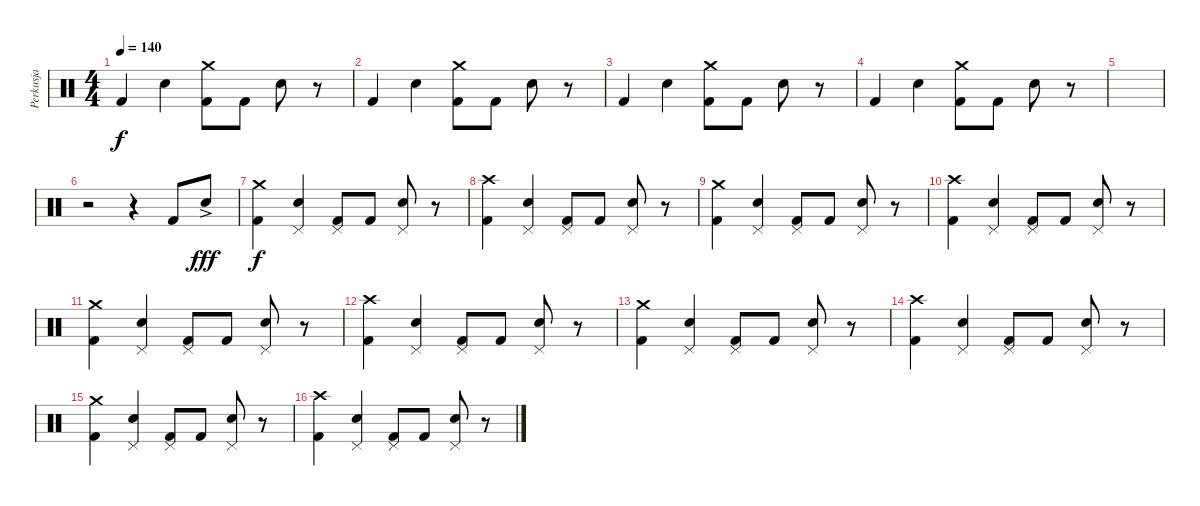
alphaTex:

\track ("Perkusja" "Perkusja") {instrument percussion}
\staff {score}
\articulation defaults
\ts (4 4)
\tempo 140
\clef neutral
\ks c "Kick (hit) 2".4{dy f} "Snare (hit) 2".4
("Crash medium (hit)" "Kick (hit) 2").8 "Kick (hit) 2".8 "Snare (hit) 2".8 r.8 |
"Kick (hit) 2".4 "Snare (hit) 2".4 ("Crash medium (hit)" "Kick (hit) 2").8 "Kick (hit) 2".8 "Snare (hit) 2".8 r.8 |
"Kick (hit) 2".4 "Snare (hit) 2".4 ("Crash medium (hit)" "Kick (hit) 2").8 "Kick (hit) 2".8 "Snare (hit) 2".8 r.8 |
"Kick (hit) 2".4 "Snare (hit) 2".4 ("Crash medium (hit)" "Kick (hit) 2").8 "Kick (hit) 2".8 "Snare (hit) 2".8 r.8 |
|
r.2 r.4 "Kick (hit) 2".8 "Snare (hit) 2"{ac}.8{dy fff} |
("Crash medium (hit)" "Kick (hit) 2").4{dy f} ("Pedal Hi-Hat (hit)" "Snare (hit) 2").4 ("Pedal Hi-Hat (hit)" "Kick (hit) 2").8 "Kick (hit) 2".8 ("Pedal Hi-Hat (hit)" "Snare (hit) 2").8 r.8 |
("Crash high (hit)" "Kick (hit) 2").4 ("Pedal Hi-Hat (hit)" "Snare (hit) 2").4 ("Pedal Hi-Hat (hit)" "Kick (hit) 2").8 "Kick (hit) 2".8 ("Pedal Hi-Hat (hit)" "Snare (hit) 2").8 r.8 |
("Crash medium (hit)" "Kick (hit) 2").4 ("Pedal Hi-Hat (hit)" "Snare (hit) 2").4 ("Pedal Hi-Hat (hit)" "Kick (hit) 2").8 "Kick (hit) 2".8 ("Pedal Hi-Hat (hit)" "Snare (hit) 2").8 r.8 |
("Crash high (hit)" "Kick (hit) 2").4 ("Pedal Hi-Hat (hit)" "Snare (hit) 2").4 ("Pedal Hi-Hat (hit)" "Kick (hit) 2").8 "Kick (hit) 2".8 ("Pedal Hi-Hat (hit)" "Snare (hit) 2").8 r.8 |
("Crash medium (hit)" "Kick (hit) 2").4 ("Pedal Hi-Hat (hit)" "Snare (hit) 2").4 ("Pedal Hi-Hat (hit)" "Kick (hit) 2").8 "Kick (hit) 2".8 ("Pedal Hi-Hat (hit)" "Snare (hit) 2").8 r.8 |
("Crash high (hit)" "Kick (hit) 2").4 ("Pedal Hi-Hat (hit)" "Snare (hit) 2").4 ("Pedal Hi-Hat (hit)" "Kick (hit) 2").8 "Kick (hit) 2".8 ("Pedal Hi-Hat (hit)" "Snare (hit) 2").8 r.8 |
("Crash medium (hit)" "Kick (hit) 2").4 ("Pedal Hi-Hat (hit)" "Snare (hit) 2").4 ("Pedal Hi-Hat (hit)" "Kick (hit) 2").8 "Kick (hit) 2".8 ("Pedal Hi-Hat (hit)" "Snare (hit) 2").8 r.8 |
("Crash high (hit)" "Kick (hit) 2").4 ("Pedal Hi-Hat (hit)" "Snare (hit) 2").4 ("Pedal Hi-Hat (hit)" "Kick (hit) 2").8 "Kick (hit) 2".8 ("Pedal Hi-Hat (hit)" "Snare (hit) 2").8 r.8 |
("Crash medium (hit)" "Kick (hit) 2").4 ("Pedal Hi-Hat (hit)" "Snare (hit) 2").4 ("Pedal Hi-Hat (hit)" "Kick (hit) 2").8 "Kick (hit) 2".8 ("Pedal Hi-Hat (hit)" "Snare (hit) 2").8 r.8 |
("Crash high (hit)" "Kick (hit) 2").4 ("Pedal Hi-Hat (hit)" "Snare (hit) 2").4 ("Pedal Hi-Hat (hit)" "Kick (hit) 2").8 "Kick (hit) 2".8 ("Pedal Hi-Hat (hit)" "Snare (hit) 2").8 r.8
